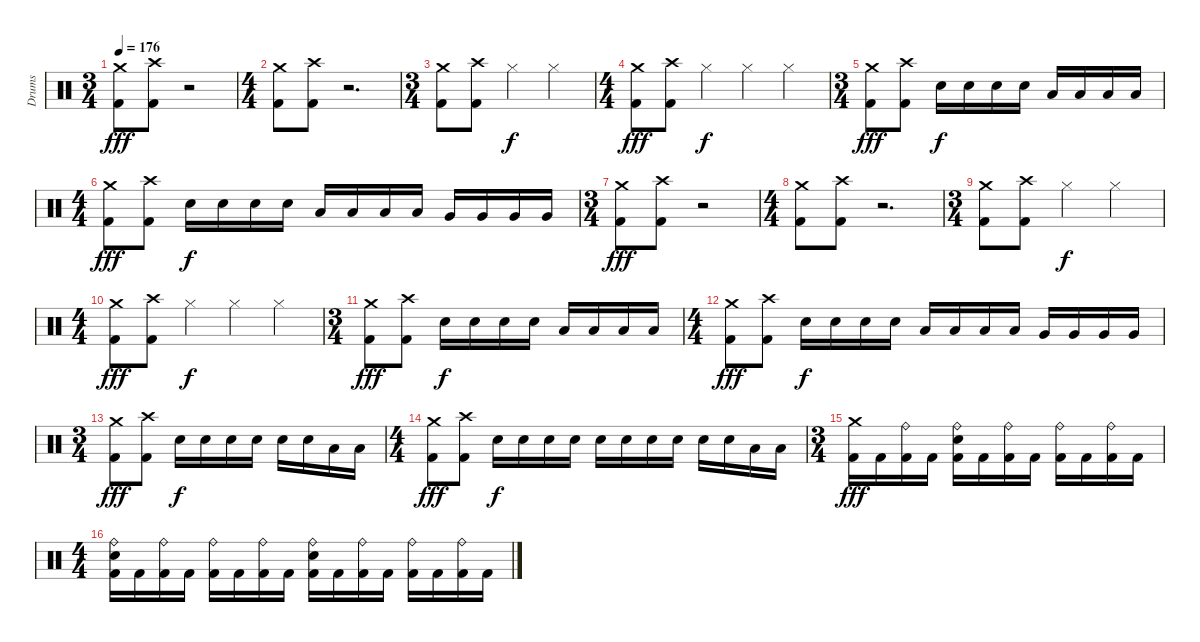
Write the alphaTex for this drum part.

\track ("Drums" "Drums") {instrument percussion}
\staff {score}
\articulation defaults
\ts (3 4)
\tempo 176
\clef neutral
\ks c
("Crash medium (hit)" "Kick (hit) 2").8{dy fff} ("Crash high (hit)" "Kick (hit) 2").8 r.2 |
\ts (4 4)
("Crash medium (hit)" "Kick (hit) 2").8 ("Crash high (hit)" "Kick (hit) 2").8 r.2{d} |
\ts (3 4)
("Crash medium (hit)" "Kick (hit) 2").8 ("Crash high (hit)" "Kick (hit) 2").8 "Hi-Hat (closed)".4{dy f} "Hi-Hat (closed)".4 |
\ts (4 4)
("Crash medium (hit)" "Kick (hit) 2").8{dy fff} ("Crash high (hit)" "Kick (hit) 2").8 "Hi-Hat (closed)".4{dy f} "Hi-Hat (closed)".4 "Hi-Hat (closed)".4 |
\ts (3 4)
("Crash medium (hit)" "Kick (hit) 2").8{dy fff} ("Crash high (hit)" "Kick (hit) 2").8 "Snare (hit) 2".16{dy f} "Snare (hit) 2".16 "Snare (hit) 2".16 "Snare (hit) 2".16 "Low Tom (hit)".16 "Low Tom (hit)".16 "Low Tom (hit)".16 "Low Tom (hit)".16 |
\ts (4 4)
("Crash medium (hit)" "Kick (hit) 2").8{dy fff} ("Crash high (hit)" "Kick (hit) 2").8 "Snare (hit) 2".16{dy f} "Snare (hit) 2".16 "Snare (hit) 2".16 "Snare (hit) 2".16 "Low Tom (hit)".16 "Low Tom (hit)".16 "Low Tom (hit)".16 "Low Tom (hit)".16 "Very Low Tom (hit)".16 "Very Low Tom (hit)".16 "Very Low Tom (hit)".16 "Very Low Tom (hit)".16 |
\ts (3 4)
("Crash medium (hit)" "Kick (hit) 2").8{dy fff} ("Crash high (hit)" "Kick (hit) 2").8 r.2 |
\ts (4 4)
("Crash medium (hit)" "Kick (hit) 2").8 ("Crash high (hit)" "Kick (hit) 2").8 r.2{d} |
\ts (3 4)
("Crash medium (hit)" "Kick (hit) 2").8 ("Crash high (hit)" "Kick (hit) 2").8 "Hi-Hat (closed)".4{dy f} "Hi-Hat (closed)".4 |
\ts (4 4)
("Crash medium (hit)" "Kick (hit) 2").8{dy fff} ("Crash high (hit)" "Kick (hit) 2").8 "Hi-Hat (closed)".4{dy f} "Hi-Hat (closed)".4 "Hi-Hat (closed)".4 |
\ts (3 4)
("Crash medium (hit)" "Kick (hit) 2").8{dy fff} ("Crash high (hit)" "Kick (hit) 2").8 "Snare (hit) 2".16{dy f} "Snare (hit) 2".16 "Snare (hit) 2".16 "Snare (hit) 2".16 "Low Tom (hit)".16 "Low Tom (hit)".16 "Low Tom (hit)".16 "Low Tom (hit)".16 |
\ts (4 4)
("Crash medium (hit)" "Kick (hit) 2").8{dy fff} ("Crash high (hit)" "Kick (hit) 2").8 "Snare (hit) 2".16{dy f} "Snare (hit) 2".16 "Snare (hit) 2".16 "Snare (hit) 2".16 "Low Tom (hit)".16 "Low Tom (hit)".16 "Low Tom (hit)".16 "Low Tom (hit)".16 "Very Low Tom (hit)".16 "Very Low Tom (hit)".16 "Very Low Tom (hit)".16 "Very Low Tom (hit)".16 |
\ts (3 4)
("Crash medium (hit)" "Kick (hit) 2").8{dy fff} ("Crash high (hit)" "Kick (hit) 2").8 "Snare (hit) 2".16{dy f} "Snare (hit) 2".16 "Snare (hit) 2".16 "Snare (hit) 2".16 "Snare (hit) 2".16 "Snare (hit) 2".16 "Low Tom (hit)".16 "Low Tom (hit)".16 |
\ts (4 4)
("Crash medium (hit)" "Kick (hit) 2").8{dy fff} ("Crash high (hit)" "Kick (hit) 2").8 "Snare (hit) 2".16{dy f} "Snare (hit) 2".16 "Snare (hit) 2".16 "Snare (hit) 2".16 "Snare (hit) 2".16 "Snare (hit) 2".16 "Snare (hit) 2".16 "Snare (hit) 2".16 "Snare (hit) 2".16 "Snare (hit) 2".16 "Low Tom (hit)".16 "Low Tom (hit)".16 |
\ts (3 4)
("Crash medium (hit)" "Kick (hit) 2").16{dy fff} "Kick (hit) 2".16 ("Ride (bell)" "Kick (hit) 2").16 "Kick (hit) 2".16 ("Ride (bell)" "Snare (hit) 2" "Kick (hit) 2").16 "Kick (hit) 2".16 ("Ride (bell)" "Kick (hit) 2").16 "Kick (hit) 2".16 ("Ride (bell)" "Kick (hit) 2").16 "Kick (hit) 2".16 ("Ride (bell)" "Kick (hit) 2").16 "Kick (hit) 2".16 |
\ts (4 4)
("Ride (bell)" "Snare (hit) 2" "Kick (hit) 2").16 "Kick (hit) 2".16 ("Ride (bell)" "Kick (hit) 2").16 "Kick (hit) 2".16 ("Ride (bell)" "Kick (hit) 2").16 "Kick (hit) 2".16 ("Ride (bell)" "Kick (hit) 2").16 "Kick (hit) 2".16 ("Ride (bell)" "Snare (hit) 2" "Kick (hit) 2").16 "Kick (hit) 2".16 ("Ride (bell)" "Kick (hit) 2").16 "Kick (hit) 2".16 ("Ride (bell)" "Kick (hit) 2").16 "Kick (hit) 2".16 ("Ride (bell)" "Kick (hit) 2").16 "Kick (hit) 2".16
